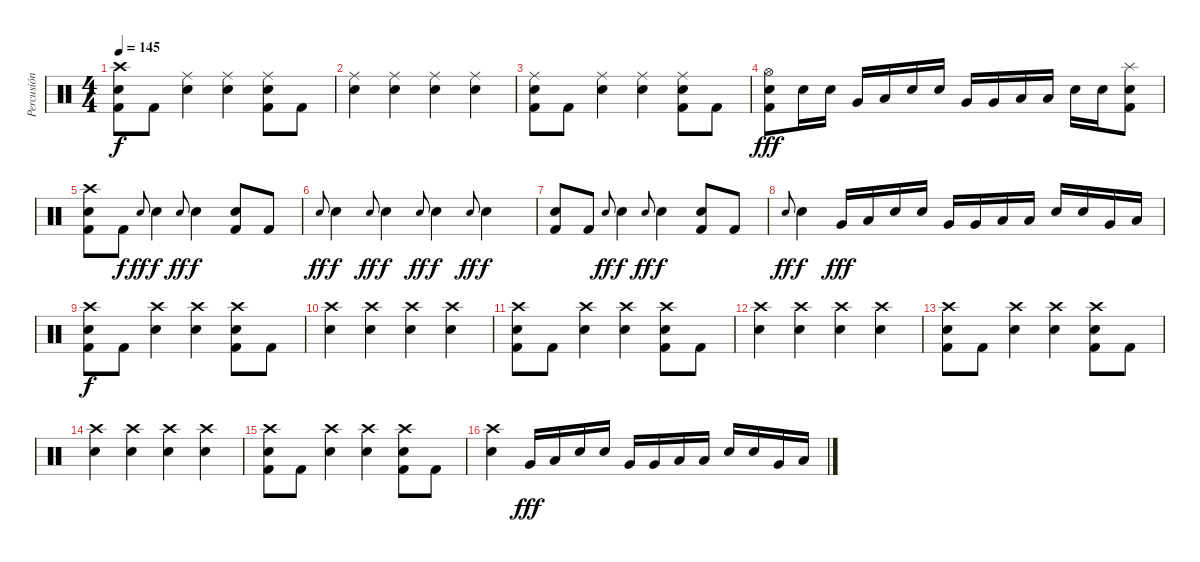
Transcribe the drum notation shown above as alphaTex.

\track ("Percusión" "Percusión") {instrument percussion}
\staff {score}
\articulation defaults
\ts (4 4)
\tempo 145
\clef neutral
\ks c
("Crash high (hit)" "Snare (hit) 2" "Kick (hit) 2").8{dy f} "Kick (hit) 2".8 ("Ride (middle)" "Snare (hit) 2").4 ("Ride (middle)" "Snare (hit) 2").4 ("Ride (middle)" "Snare (hit) 2" "Kick (hit) 2").8 "Kick (hit) 2".8 |
("Ride (middle)" "Snare (hit) 2").4 ("Ride (middle)" "Snare (hit) 2").4 ("Ride (middle)" "Snare (hit) 2").4 ("Ride (middle)" "Snare (hit) 2").4 |
("Ride (middle)" "Snare (hit) 2" "Kick (hit) 2").8 "Kick (hit) 2".8 ("Ride (middle)" "Snare (hit) 2").4 ("Ride (middle)" "Snare (hit) 2").4 ("Ride (middle)" "Snare (hit) 2" "Kick (hit) 2").8 "Kick (hit) 2".8 |
("Hi-Hat (open)" "Snare (hit) 2" "Kick (hit) 2").8{dy fff} "Snare (hit) 2".16 "Snare (hit) 2".16 "Very Low Tom (hit)".16 "Low Tom (hit)".16 "Snare (hit) 2".16 "Snare (hit) 2".16 "Very Low Tom (hit)".16 "Very Low Tom (hit)".16 "Low Tom (hit)".16 "Low Tom (hit)".16 "Snare (hit) 2".16 "Snare (hit) 2".16 ("Splash (hit)" "Snare (hit) 2" "Kick (hit) 2").8 |
("Crash high (hit)" "Snare (hit) 2" "Kick (hit) 2").8 "Kick (hit) 2".8{dy f} "Snare (hit) 2".8{gr onbeat dy ff} "Snare (hit) 2".4{dy f} "Snare (hit) 2".8{gr onbeat dy ff} "Snare (hit) 2".4{dy f} ("Snare (hit) 2" "Kick (hit) 2").8 "Kick (hit) 2".8 |
"Snare (hit) 2".8{gr onbeat dy ff} "Snare (hit) 2".4{dy f} "Snare (hit) 2".8{gr onbeat dy ff} "Snare (hit) 2".4{dy f} "Snare (hit) 2".8{gr onbeat dy ff} "Snare (hit) 2".4{dy f} "Snare (hit) 2".8{gr onbeat dy ff} "Snare (hit) 2".4{dy f} |
("Snare (hit) 2" "Kick (hit) 2").8 "Kick (hit) 2".8 "Snare (hit) 2".8{gr onbeat dy ff} "Snare (hit) 2".4{dy f} "Snare (hit) 2".8{gr onbeat dy ff} "Snare (hit) 2".4{dy f} ("Snare (hit) 2" "Kick (hit) 2").8 "Kick (hit) 2".8 |
"Snare (hit) 2".8{gr onbeat dy ff} "Snare (hit) 2".4{dy f} "Very Low Tom (hit)".16{dy fff} "Low Tom (hit)".16 "Snare (hit) 2".16 "Snare (hit) 2".16 "Very Low Tom (hit)".16 "Very Low Tom (hit)".16 "Low Tom (hit)".16 "Low Tom (hit)".16 "Snare (hit) 2".16 "Snare (hit) 2".16 "Very Low Tom (hit)".16 "Low Tom (hit)".16 |
("Crash high (hit)" "Snare (hit) 2" "Kick (hit) 2").8{dy f} "Kick (hit) 2".8 ("Crash high (hit)" "Snare (hit) 2").4 ("Crash high (hit)" "Snare (hit) 2").4 ("Crash high (hit)" "Snare (hit) 2" "Kick (hit) 2").8 "Kick (hit) 2".8 |
("Crash high (hit)" "Snare (hit) 2").4 ("Crash high (hit)" "Snare (hit) 2").4 ("Crash high (hit)" "Snare (hit) 2").4 ("Crash high (hit)" "Snare (hit) 2").4 |
("Crash high (hit)" "Snare (hit) 2" "Kick (hit) 2").8 "Kick (hit) 2".8 ("Crash high (hit)" "Snare (hit) 2").4 ("Crash high (hit)" "Snare (hit) 2").4 ("Crash high (hit)" "Snare (hit) 2" "Kick (hit) 2").8 "Kick (hit) 2".8 |
("Crash high (hit)" "Snare (hit) 2").4 ("Crash high (hit)" "Snare (hit) 2").4 ("Crash high (hit)" "Snare (hit) 2").4 ("Crash high (hit)" "Snare (hit) 2").4 |
("Crash high (hit)" "Snare (hit) 2" "Kick (hit) 2").8 "Kick (hit) 2".8 ("Crash high (hit)" "Snare (hit) 2").4 ("Crash high (hit)" "Snare (hit) 2").4 ("Crash high (hit)" "Snare (hit) 2" "Kick (hit) 2").8 "Kick (hit) 2".8 |
("Crash high (hit)" "Snare (hit) 2").4 ("Crash high (hit)" "Snare (hit) 2").4 ("Crash high (hit)" "Snare (hit) 2").4 ("Crash high (hit)" "Snare (hit) 2").4 |
("Crash high (hit)" "Snare (hit) 2" "Kick (hit) 2").8 "Kick (hit) 2".8 ("Crash high (hit)" "Snare (hit) 2").4 ("Crash high (hit)" "Snare (hit) 2").4 ("Crash high (hit)" "Snare (hit) 2" "Kick (hit) 2").8 "Kick (hit) 2".8 |
("Crash high (hit)" "Snare (hit) 2").4 "Very Low Tom (hit)".16{dy fff} "Low Tom (hit)".16 "Snare (hit) 2".16 "Snare (hit) 2".16 "Very Low Tom (hit)".16 "Very Low Tom (hit)".16 "Low Tom (hit)".16 "Low Tom (hit)".16 "Snare (hit) 2".16 "Snare (hit) 2".16 "Very Low Tom (hit)".16 "Low Tom (hit)".16
